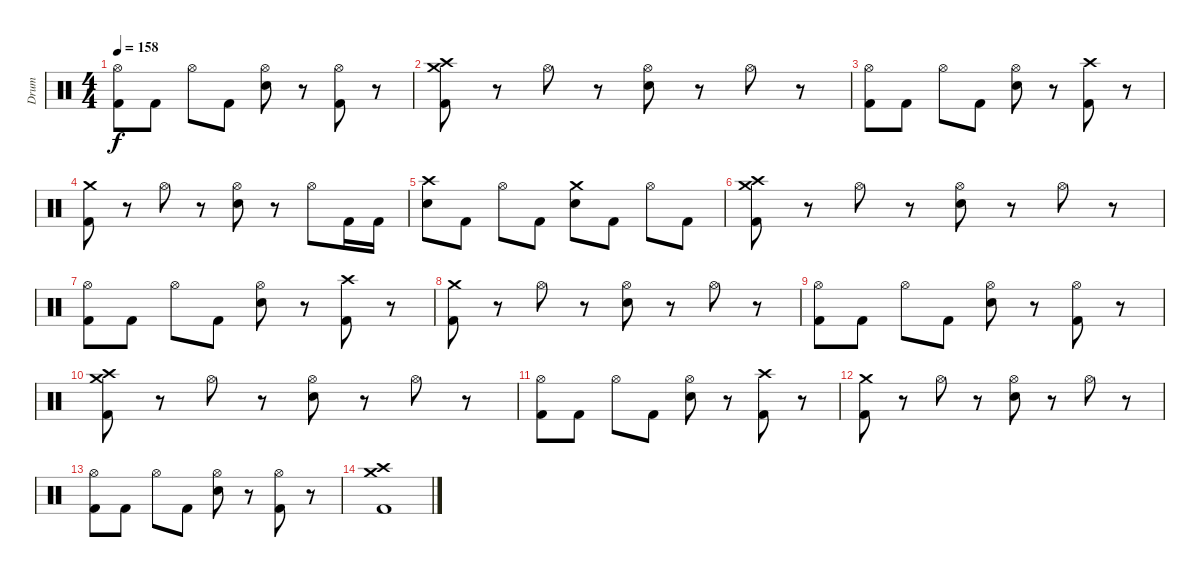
\track ("Drum" "Drum") {instrument percussion}
\staff {score}
\articulation defaults
\ts (4 4)
\tempo 158
\clef neutral
\ks c
("Hi-Hat (open)" "Kick (hit) 2").8{dy f} "Kick (hit) 2".8 "Hi-Hat (open)".8 "Kick (hit) 2".8 ("Hi-Hat (open)" "Snare (hit) 2").8 r.8 ("Hi-Hat (open)" "Kick (hit) 2").8 r.8 |
("Crash medium (hit)" "Crash high (hit)" "Kick (hit) 2").8 r.8 "Hi-Hat (open)".8 r.8 ("Hi-Hat (open)" "Snare (hit) 2").8 r.8 "Hi-Hat (open)".8 r.8 |
("Hi-Hat (open)" "Kick (hit) 2").8 "Kick (hit) 2".8 "Hi-Hat (open)".8 "Kick (hit) 2".8 ("Hi-Hat (open)" "Snare (hit) 2").8 r.8 ("Crash high (hit)" "Kick (hit) 2").8 r.8 |
("Crash medium (hit)" "Kick (hit) 2").8 r.8 "Hi-Hat (open)".8 r.8 ("Hi-Hat (open)" "Snare (hit) 2").8 r.8 "Hi-Hat (open)".8 "Kick (hit) 2".16 "Kick (hit) 2".16 |
("Crash high (hit)" "Snare (hit) 2").8 "Kick (hit) 2".8 "Hi-Hat (open)".8 "Kick (hit) 2".8 ("Crash medium (hit)" "Snare (hit) 2").8 "Kick (hit) 2".8 "Hi-Hat (open)".8 "Kick (hit) 2".8 |
("Crash medium (hit)" "Crash high (hit)" "Kick (hit) 2").8 r.8 "Hi-Hat (open)".8 r.8 ("Hi-Hat (open)" "Snare (hit) 2").8 r.8 "Hi-Hat (open)".8 r.8 |
("Hi-Hat (open)" "Kick (hit) 2").8 "Kick (hit) 2".8 "Hi-Hat (open)".8 "Kick (hit) 2".8 ("Hi-Hat (open)" "Snare (hit) 2").8 r.8 ("Crash high (hit)" "Kick (hit) 2").8 r.8 |
("Crash medium (hit)" "Kick (hit) 2").8 r.8 "Hi-Hat (open)".8 r.8 ("Hi-Hat (open)" "Snare (hit) 2").8 r.8 "Hi-Hat (open)".8 r.8 |
("Hi-Hat (open)" "Kick (hit) 2").8 "Kick (hit) 2".8 "Hi-Hat (open)".8 "Kick (hit) 2".8 ("Hi-Hat (open)" "Snare (hit) 2").8 r.8 ("Hi-Hat (open)" "Kick (hit) 2").8 r.8 |
("Crash medium (hit)" "Crash high (hit)" "Kick (hit) 2").8 r.8 "Hi-Hat (open)".8 r.8 ("Hi-Hat (open)" "Snare (hit) 2").8 r.8 "Hi-Hat (open)".8 r.8 |
("Hi-Hat (open)" "Kick (hit) 2").8 "Kick (hit) 2".8 "Hi-Hat (open)".8 "Kick (hit) 2".8 ("Hi-Hat (open)" "Snare (hit) 2").8 r.8 ("Crash high (hit)" "Kick (hit) 2").8 r.8 |
("Crash medium (hit)" "Kick (hit) 2").8 r.8 "Hi-Hat (open)".8 r.8 ("Hi-Hat (open)" "Snare (hit) 2").8 r.8 "Hi-Hat (open)".8 r.8 |
("Hi-Hat (open)" "Kick (hit) 2").8 "Kick (hit) 2".8 "Hi-Hat (open)".8 "Kick (hit) 2".8 ("Hi-Hat (open)" "Snare (hit) 2").8 r.8 ("Hi-Hat (open)" "Kick (hit) 2").8 r.8 |
("Crash medium (hit)" "Crash high (hit)" "Kick (hit) 2").1
